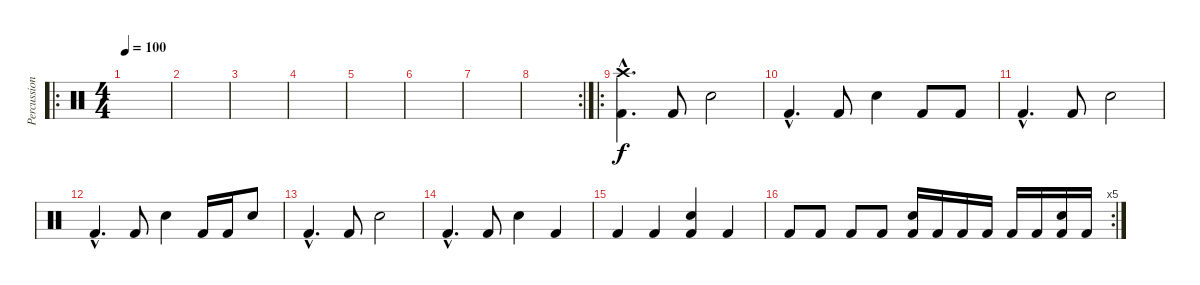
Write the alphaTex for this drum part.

\track ("Percussions" "Percussion") {instrument percussion}
\staff {score}
\articulation defaults
\ro
\ts (4 4)
\tempo 100
\clef neutral
\ks c
|
|
|
|
|
|
|
\rc 2
|
\ro
("Crash high (hit)"{hac} "Kick (hit) 2"{hac}).4{d} "Kick (hit) 2".8 "Snare (hit) 2".2 |
"Kick (hit) 2"{hac}.4{d} "Kick (hit) 2".8 "Snare (hit) 2".4 "Kick (hit) 2".8 "Kick (hit) 2".8 |
"Kick (hit) 2"{hac}.4{d} "Kick (hit) 2".8 "Snare (hit) 2".2 |
"Kick (hit) 2"{hac}.4{d} "Kick (hit) 2".8 "Snare (hit) 2".4 "Kick (hit) 2".16 "Kick (hit) 2".16 "Snare (hit) 2".8 |
"Kick (hit) 2"{hac}.4{d} "Kick (hit) 2".8 "Snare (hit) 2".2 |
"Kick (hit) 2"{hac}.4{d} "Kick (hit) 2".8 "Snare (hit) 2".4 "Kick (hit) 2".4 |
"Kick (hit) 2".4 "Kick (hit) 2".4 ("Snare (hit) 2" "Kick (hit) 2").4 "Kick (hit) 2".4 |
\rc 5 "Kick (hit) 2".8 "Kick (hit) 2".8 "Kick (hit) 2".8 "Kick (hit) 2".8
("Snare (hit) 2" "Kick (hit) 2").16 "Kick (hit) 2".16 "Kick (hit) 2".16 "Kick (hit) 2".16 "Kick (hit) 2".16 "Kick (hit) 2".16 ("Snare (hit) 2" "Kick (hit) 2").16 "Kick (hit) 2".16
